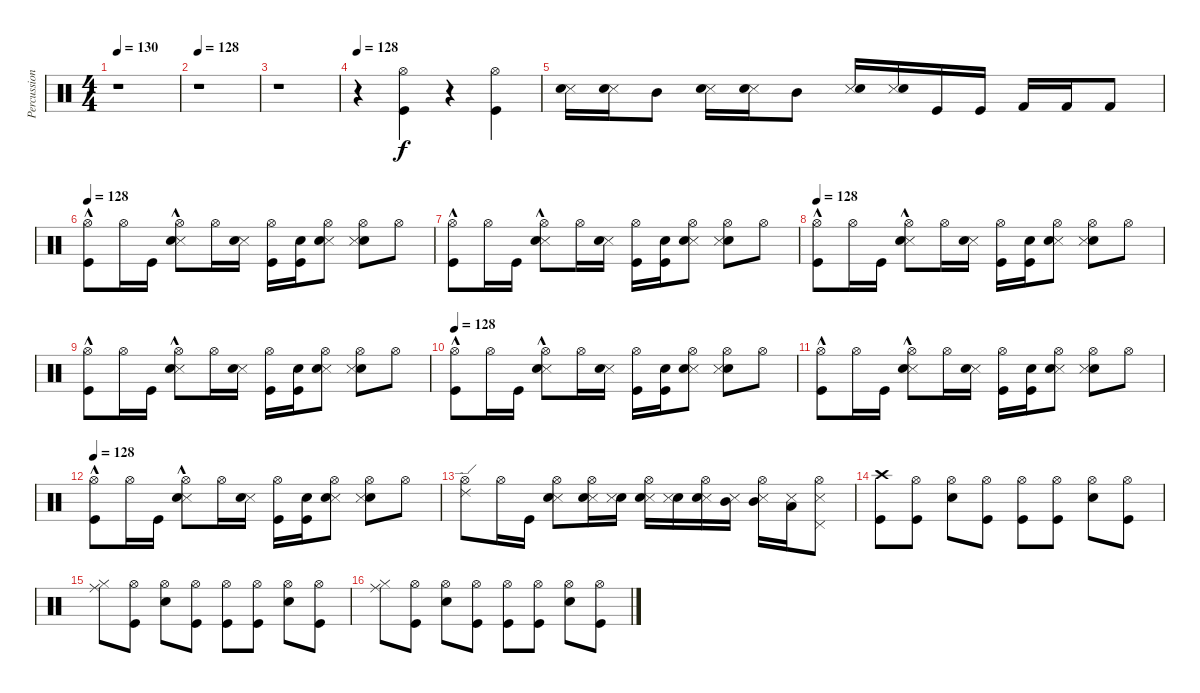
\track ("Percussion" "Percussion") {instrument percussion}
\staff {score}
\articulation defaults
\ts (4 4)
\tempo 130
\clef neutral
\ks c
r.1{dy f} |
\tempo 128
r.1 |
r.1 |
\tempo 128
r.4 ("Kick (hit)" "Hi-Hat (open)").4 r.4 ("Kick (hit)" "Hi-Hat (open)").4 |
("Snare (side stick) 3" "Electric Snare (hit)").16 ("Snare (side stick) 3" "Electric Snare (hit)").16 "Mid Tom (hit)".8 ("Snare (side stick) 3" "Electric Snare (hit)").16 ("Snare (side stick) 3" "Electric Snare (hit)").16 "Mid Tom (hit)".8 ("Snare (side stick) 3" "Electric Snare (hit)").16 ("Snare (side stick) 3" "Electric Snare (hit)").16 "Kick (hit)".16 "Kick (hit)".16 "Kick (hit) 2".16 "Kick (hit) 2".16 "Kick (hit) 2".8 |
\tempo 128
("Hi-Hat (open)" "Kick (hit)"{hac}).8 "Hi-Hat (open)".16 "Kick (hit)".16 ("Snare (side stick) 3"{hac} "Electric Snare (hit)"{hac} "Hi-Hat (open)").8 "Hi-Hat (open)".16 ("Snare (side stick) 3" "Electric Snare (hit)").16 ("Kick (hit)" "Hi-Hat (open)").16 ("Kick (hit)" "Electric Snare (hit)").16 ("Snare (side stick) 3" "Electric Snare (hit)" "Hi-Hat (open)").8 ("Electric Snare (hit)" "Snare (side stick) 3" "Hi-Hat (open)").8 "Hi-Hat (open)".8 |
("Hi-Hat (open)" "Kick (hit)"{hac}).8 "Hi-Hat (open)".16 "Kick (hit)".16 ("Snare (side stick) 3"{hac} "Electric Snare (hit)"{hac} "Hi-Hat (open)").8 "Hi-Hat (open)".16 ("Snare (side stick) 3" "Electric Snare (hit)").16 ("Kick (hit)" "Hi-Hat (open)").16 ("Kick (hit)" "Electric Snare (hit)").16 ("Snare (side stick) 3" "Electric Snare (hit)" "Hi-Hat (open)").8 ("Electric Snare (hit)" "Snare (side stick) 3" "Hi-Hat (open)").8 "Hi-Hat (open)".8 |
\tempo 128
("Hi-Hat (open)" "Kick (hit)"{hac}).8 "Hi-Hat (open)".16 "Kick (hit)".16 ("Snare (side stick) 3"{hac} "Electric Snare (hit)"{hac} "Hi-Hat (open)").8 "Hi-Hat (open)".16 ("Snare (side stick) 3" "Electric Snare (hit)").16 ("Kick (hit)" "Hi-Hat (open)").16 ("Kick (hit)" "Electric Snare (hit)").16 ("Snare (side stick) 3" "Electric Snare (hit)" "Hi-Hat (open)").8 ("Electric Snare (hit)" "Snare (side stick) 3" "Hi-Hat (open)").8 "Hi-Hat (open)".8 |
("Hi-Hat (open)" "Kick (hit)"{hac}).8 "Hi-Hat (open)".16 "Kick (hit)".16 ("Snare (side stick) 3"{hac} "Electric Snare (hit)"{hac} "Hi-Hat (open)").8 "Hi-Hat (open)".16 ("Snare (side stick) 3" "Electric Snare (hit)").16 ("Kick (hit)" "Hi-Hat (open)").16 ("Kick (hit)" "Electric Snare (hit)").16 ("Snare (side stick) 3" "Electric Snare (hit)" "Hi-Hat (open)").8 ("Electric Snare (hit)" "Snare (side stick) 3" "Hi-Hat (open)").8 "Hi-Hat (open)".8 |
\tempo 128
("Hi-Hat (open)" "Kick (hit)"{hac}).8 "Hi-Hat (open)".16 "Kick (hit)".16 ("Snare (side stick) 3"{hac} "Electric Snare (hit)"{hac} "Hi-Hat (open)").8 "Hi-Hat (open)".16 ("Snare (side stick) 3" "Electric Snare (hit)").16 ("Kick (hit)" "Hi-Hat (open)").16 ("Kick (hit)" "Electric Snare (hit)").16 ("Snare (side stick) 3" "Electric Snare (hit)" "Hi-Hat (open)").8 ("Electric Snare (hit)" "Snare (side stick) 3" "Hi-Hat (open)").8 "Hi-Hat (open)".8 |
("Hi-Hat (open)" "Kick (hit)"{hac}).8 "Hi-Hat (open)".16 "Kick (hit)".16 ("Snare (side stick) 3"{hac} "Electric Snare (hit)"{hac} "Hi-Hat (open)").8 "Hi-Hat (open)".16 ("Snare (side stick) 3" "Electric Snare (hit)").16 ("Kick (hit)" "Hi-Hat (open)").16 ("Kick (hit)" "Electric Snare (hit)").16 ("Snare (side stick) 3" "Electric Snare (hit)" "Hi-Hat (open)").8 ("Electric Snare (hit)" "Snare (side stick) 3" "Hi-Hat (open)").8 "Hi-Hat (open)".8 |
\tempo 128
("Hi-Hat (open)" "Kick (hit)"{hac}).8 "Hi-Hat (open)".16 "Kick (hit)".16 ("Snare (side stick) 3"{hac} "Electric Snare (hit)"{hac} "Hi-Hat (open)").8 "Hi-Hat (open)".16 ("Snare (side stick) 3" "Electric Snare (hit)").16 ("Kick (hit)" "Hi-Hat (open)").16 ("Kick (hit)" "Electric Snare (hit)").16 ("Snare (side stick) 3" "Electric Snare (hit)" "Hi-Hat (open)").8 ("Electric Snare (hit)" "Snare (side stick) 3" "Hi-Hat (open)").8 "Hi-Hat (open)".8 |
("Ride (edge) 2" "Hi-Hat (open)").8 "Hi-Hat (open)".16 "Kick (hit)".16 ("Snare (side stick) 3" "Electric Snare (hit)" "Hi-Hat (open)").8 ("Snare (side stick) 3" "Electric Snare (hit)" "Hi-Hat (open)").16 ("Electric Snare (hit)" "Snare (side stick) 3").16 ("Snare (side stick) 3" "Electric Snare (hit)" "Hi-Hat (open)").16 ("Electric Snare (hit)" "Snare (side stick) 3").16 ("Snare (side stick) 3" "Electric Snare (hit)" "Hi-Hat (open)").16 ("Mid Tom (hit)" "Snare (side stick) 3").16 ("Mid Tom (hit)" "Snare (side stick) 3" "Hi-Hat (open)").16 ("Low Tom (hit)" "Snare (side stick) 3").16 ("Pedal Hi-Hat (hit)" "Snare (side stick) 3" "Hi-Hat (open)").8 |
("Crash high (hit)" "Kick (hit)").8 ("Kick (hit)" "Hi-Hat (open)").8 ("Electric Snare (hit)" "Hi-Hat (open)").8 ("Kick (hit)" "Hi-Hat (open)").8 ("Kick (hit)" "Hi-Hat (open)").8 ("Kick (hit)" "Hi-Hat (open)").8 ("Electric Snare (hit)" "Hi-Hat (open)").8 ("Kick (hit)" "Hi-Hat (open)").8 |
("Hi-Hat (closed)" "Ride (middle)").8 ("Kick (hit)" "Hi-Hat (open)").8 ("Electric Snare (hit)" "Hi-Hat (open)").8 ("Kick (hit)" "Hi-Hat (open)").8 ("Kick (hit)" "Hi-Hat (open)").8 ("Kick (hit)" "Hi-Hat (open)").8 ("Electric Snare (hit)" "Hi-Hat (open)").8 ("Kick (hit)" "Hi-Hat (open)").8 |
("Hi-Hat (closed)" "Ride (middle)").8 ("Kick (hit)" "Hi-Hat (open)").8 ("Electric Snare (hit)" "Hi-Hat (open)").8 ("Kick (hit)" "Hi-Hat (open)").8 ("Kick (hit)" "Hi-Hat (open)").8 ("Kick (hit)" "Hi-Hat (open)").8 ("Electric Snare (hit)" "Hi-Hat (open)").8 ("Kick (hit)" "Hi-Hat (open)").8
